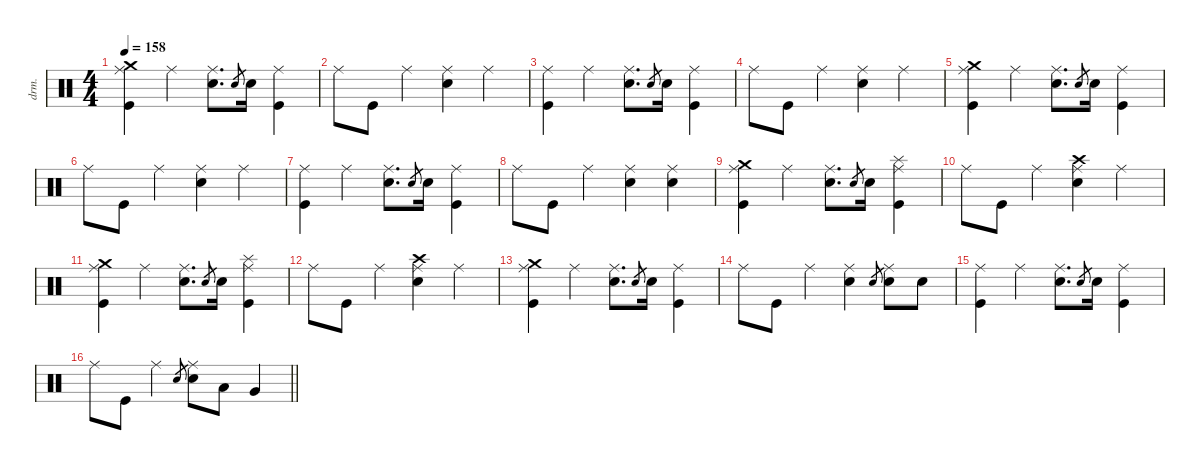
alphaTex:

\defaultSystemsLayout 4
\hideDynamics
\bracketExtendMode groupsimilarinstruments
\otherSystemsTrackNameOrientation horizontal
\track ("Drums" "drm.") {defaultSystemsLayout 4 instrument percussion}
\staff {score}
\articulation defaults
\ts (4 4)
\tempo 158
\clef neutral
\ks aminor
("Crash medium (hit)" "Ride (middle)" "Kick (hit)").4{dy f beam Down} "Ride (middle)".4{beam Down} ("Ride (middle)" "Snare (hit) 2").8{d beam Down} "Electric Snare (hit)".8{gr dy pp beam Up} "Snare (hit) 2".16{dy p beam Down} ("Ride (middle)" "Kick (hit)").4{dy f beam Down} |
"Ride (middle)".8{beam Down} "Kick (hit)".8{beam Down} "Ride (middle)".4{beam Down} ("Ride (middle)" "Snare (hit) 2").4{beam Down} "Ride (middle)".4{beam Down} |
("Ride (middle)" "Kick (hit)").4{beam Down} "Ride (middle)".4{beam Down} ("Ride (middle)" "Snare (hit) 2").8{d beam Down} "Electric Snare (hit)".8{gr dy pp beam Up} "Snare (hit) 2".16{dy p beam Down} ("Ride (middle)" "Kick (hit)").4{dy f beam Down} |
"Ride (middle)".8{beam Down} "Kick (hit)".8{beam Down} "Ride (middle)".4{beam Down} ("Ride (middle)" "Snare (hit) 2").4{beam Down} "Ride (middle)".4{beam Down} |
("Crash medium (hit)" "Ride (middle)" "Kick (hit)").4{beam Down} "Ride (middle)".4{beam Down} ("Ride (middle)" "Snare (hit) 2").8{d beam Down} "Electric Snare (hit)".8{gr dy pp beam Up} "Snare (hit) 2".16{dy p beam Down} ("Ride (middle)" "Kick (hit)").4{dy f beam Down} |
"Ride (middle)".8{beam Down} "Kick (hit)".8{beam Down} "Ride (middle)".4{beam Down} ("Ride (middle)" "Snare (hit) 2").4{beam Down} "Ride (middle)".4{beam Down} |
("Ride (middle)" "Kick (hit)").4{beam Down} "Ride (middle)".4{beam Down} ("Ride (middle)" "Snare (hit) 2").8{d beam Down} "Electric Snare (hit)".8{gr dy pp beam Up} "Snare (hit) 2".16{dy p beam Down} ("Ride (middle)" "Kick (hit)").4{dy f beam Down} |
"Ride (middle)".8{beam Down} "Kick (hit)".8{beam Down} "Ride (middle)".4{beam Down} ("Ride (middle)" "Snare (hit) 2").4{beam Down} ("Ride (middle)" "Snare (hit) 2").4{beam Down} |
("Crash medium (hit)" "Ride (middle)" "Kick (hit)").4{beam Down} "Ride (middle)".4{beam Down} ("Ride (middle)" "Snare (hit) 2").8{d beam Down} "Electric Snare (hit)".8{gr dy pp beam Up} "Snare (hit) 2".16{dy p beam Down} ("Splash (hit)" "Ride (middle)" "Kick (hit)").4{dy mf beam Down} |
"Ride (middle)".8{dy f beam Down} "Kick (hit)".8{beam Down} "Ride (middle)".4{beam Down} ("Crash high (hit)" "Ride (middle)" "Snare (hit) 2").4{dy mf beam Down} "Ride (middle)".4{dy f beam Down} |
("Crash medium (hit)" "Ride (middle)" "Kick (hit)").4{beam Down} "Ride (middle)".4{beam Down} ("Ride (middle)" "Snare (hit) 2").8{d beam Down} "Electric Snare (hit)".8{gr dy pp beam Up} "Snare (hit) 2".16{dy p beam Down} ("Splash (hit)" "Ride (middle)" "Kick (hit)").4{dy mf beam Down} |
"Ride (middle)".8{dy f beam Down} "Kick (hit)".8{beam Down} "Ride (middle)".4{beam Down} ("Crash high (hit)" "Ride (middle)" "Snare (hit) 2").4{dy mf beam Down} "Ride (middle)".4{dy f beam Down} |
("Crash medium (hit)" "Ride (middle)" "Kick (hit)").4{beam Down} "Ride (middle)".4{beam Down} ("Ride (middle)" "Snare (hit) 2").8{d beam Down} "Electric Snare (hit)".8{gr dy pp beam Up} "Snare (hit) 2".16{dy p beam Down} ("Ride (middle)" "Kick (hit)").4{dy f beam Down} |
"Ride (middle)".8{beam Down} "Kick (hit)".8{beam Down} "Ride (middle)".4{beam Down} ("Ride (middle)" "Snare (hit) 2").4{beam Down} "Electric Snare (hit)".8{gr dy p beam Up} ("Ride (middle)" "Snare (hit) 2").8{dy f beam Down} "Snare (hit) 2".8{dy mf beam Down} |
("Ride (middle)" "Kick (hit)").4{dy f beam Down} "Ride (middle)".4{beam Down} ("Ride (middle)" "Snare (hit) 2").8{d beam Down} "Electric Snare (hit)".8{gr dy pp beam Up} "Snare (hit) 2".16{dy p beam Down} ("Ride (middle)" "Kick (hit)").4{dy f beam Down} |
\barLineRight lightlight "Ride (middle)".8{beam Down} "Kick (hit)".8{beam Down} "Ride (middle)".4{beam Down} "Electric Snare (hit)".8{gr dy p beam Up}
("Ride (middle)" "Snare (hit) 2").8{dy f beam Down} "Low Tom (hit)".8{dy ff beam Down} "Very Low Tom (hit)".4{dy fff beam Up}
